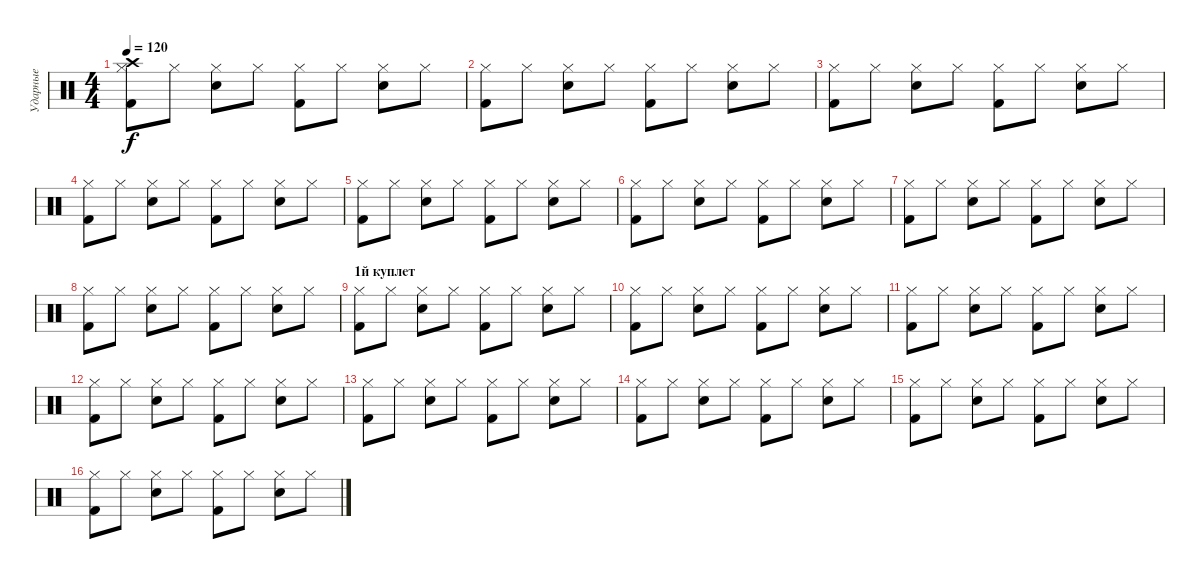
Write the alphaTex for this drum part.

\track ("Ударные" "Ударные") {instrument percussion}
\staff {score}
\articulation defaults
\ts (4 4)
\tempo 120
\clef neutral
\ks c
("Crash high (hit)" "Hi-Hat (closed)" "Kick (hit) 2").8{dy f volume 13} "Hi-Hat (closed)".8 ("Hi-Hat (closed)" "Snare (hit) 2").8 "Hi-Hat (closed)".8 ("Hi-Hat (closed)" "Kick (hit) 2").8 "Hi-Hat (closed)".8 ("Hi-Hat (closed)" "Snare (hit) 2").8 "Hi-Hat (closed)".8 |
("Hi-Hat (closed)" "Kick (hit) 2").8 "Hi-Hat (closed)".8 ("Hi-Hat (closed)" "Snare (hit) 2").8 "Hi-Hat (closed)".8 ("Hi-Hat (closed)" "Kick (hit) 2").8 "Hi-Hat (closed)".8 ("Hi-Hat (closed)" "Snare (hit) 2").8 "Hi-Hat (closed)".8 |
("Hi-Hat (closed)" "Kick (hit) 2").8 "Hi-Hat (closed)".8 ("Hi-Hat (closed)" "Snare (hit) 2").8 "Hi-Hat (closed)".8 ("Hi-Hat (closed)" "Kick (hit) 2").8 "Hi-Hat (closed)".8 ("Hi-Hat (closed)" "Snare (hit) 2").8 "Hi-Hat (closed)".8 |
("Hi-Hat (closed)" "Kick (hit) 2").8 "Hi-Hat (closed)".8 ("Hi-Hat (closed)" "Snare (hit) 2").8 "Hi-Hat (closed)".8 ("Hi-Hat (closed)" "Kick (hit) 2").8 "Hi-Hat (closed)".8 ("Hi-Hat (closed)" "Snare (hit) 2").8 "Hi-Hat (closed)".8 |
("Hi-Hat (closed)" "Kick (hit) 2").8 "Hi-Hat (closed)".8 ("Hi-Hat (closed)" "Snare (hit) 2").8 "Hi-Hat (closed)".8 ("Hi-Hat (closed)" "Kick (hit) 2").8 "Hi-Hat (closed)".8 ("Hi-Hat (closed)" "Snare (hit) 2").8 "Hi-Hat (closed)".8 |
("Hi-Hat (closed)" "Kick (hit) 2").8 "Hi-Hat (closed)".8 ("Hi-Hat (closed)" "Snare (hit) 2").8 "Hi-Hat (closed)".8 ("Hi-Hat (closed)" "Kick (hit) 2").8 "Hi-Hat (closed)".8 ("Hi-Hat (closed)" "Snare (hit) 2").8 "Hi-Hat (closed)".8 |
("Hi-Hat (closed)" "Kick (hit) 2").8{volume 13} "Hi-Hat (closed)".8 ("Hi-Hat (closed)" "Snare (hit) 2").8 "Hi-Hat (closed)".8 ("Hi-Hat (closed)" "Kick (hit) 2").8 "Hi-Hat (closed)".8 ("Hi-Hat (closed)" "Snare (hit) 2").8 "Hi-Hat (closed)".8 |
("Hi-Hat (closed)" "Kick (hit) 2").8 "Hi-Hat (closed)".8 ("Hi-Hat (closed)" "Snare (hit) 2").8 "Hi-Hat (closed)".8 ("Hi-Hat (closed)" "Kick (hit) 2").8 "Hi-Hat (closed)".8 ("Hi-Hat (closed)" "Snare (hit) 2").8 "Hi-Hat (closed)".8 |
\section ("" "1й куплет")
("Hi-Hat (closed)" "Kick (hit) 2").8 "Hi-Hat (closed)".8 ("Hi-Hat (closed)" "Snare (hit) 2").8 "Hi-Hat (closed)".8 ("Hi-Hat (closed)" "Kick (hit) 2").8 "Hi-Hat (closed)".8 ("Hi-Hat (closed)" "Snare (hit) 2").8 "Hi-Hat (closed)".8 |
("Hi-Hat (closed)" "Kick (hit) 2").8 "Hi-Hat (closed)".8 ("Hi-Hat (closed)" "Snare (hit) 2").8 "Hi-Hat (closed)".8 ("Hi-Hat (closed)" "Kick (hit) 2").8 "Hi-Hat (closed)".8 ("Hi-Hat (closed)" "Snare (hit) 2").8 "Hi-Hat (closed)".8 |
("Hi-Hat (closed)" "Kick (hit) 2").8 "Hi-Hat (closed)".8 ("Hi-Hat (closed)" "Snare (hit) 2").8 "Hi-Hat (closed)".8 ("Hi-Hat (closed)" "Kick (hit) 2").8 "Hi-Hat (closed)".8 ("Hi-Hat (closed)" "Snare (hit) 2").8 "Hi-Hat (closed)".8 |
("Hi-Hat (closed)" "Kick (hit) 2").8 "Hi-Hat (closed)".8 ("Hi-Hat (closed)" "Snare (hit) 2").8 "Hi-Hat (closed)".8 ("Hi-Hat (closed)" "Kick (hit) 2").8 "Hi-Hat (closed)".8 ("Hi-Hat (closed)" "Snare (hit) 2").8 "Hi-Hat (closed)".8 |
("Hi-Hat (closed)" "Kick (hit) 2").8 "Hi-Hat (closed)".8 ("Hi-Hat (closed)" "Snare (hit) 2").8 "Hi-Hat (closed)".8 ("Hi-Hat (closed)" "Kick (hit) 2").8 "Hi-Hat (closed)".8 ("Hi-Hat (closed)" "Snare (hit) 2").8 "Hi-Hat (closed)".8 |
("Hi-Hat (closed)" "Kick (hit) 2").8 "Hi-Hat (closed)".8 ("Hi-Hat (closed)" "Snare (hit) 2").8 "Hi-Hat (closed)".8 ("Hi-Hat (closed)" "Kick (hit) 2").8 "Hi-Hat (closed)".8 ("Hi-Hat (closed)" "Snare (hit) 2").8 "Hi-Hat (closed)".8 |
("Hi-Hat (closed)" "Kick (hit) 2").8 "Hi-Hat (closed)".8 ("Hi-Hat (closed)" "Snare (hit) 2").8 "Hi-Hat (closed)".8 ("Hi-Hat (closed)" "Kick (hit) 2").8 "Hi-Hat (closed)".8 ("Hi-Hat (closed)" "Snare (hit) 2").8 "Hi-Hat (closed)".8 |
("Hi-Hat (closed)" "Kick (hit) 2").8 "Hi-Hat (closed)".8 ("Hi-Hat (closed)" "Snare (hit) 2").8 "Hi-Hat (closed)".8 ("Hi-Hat (closed)" "Kick (hit) 2").8 "Hi-Hat (closed)".8 ("Hi-Hat (closed)" "Snare (hit) 2").8 "Hi-Hat (closed)".8
